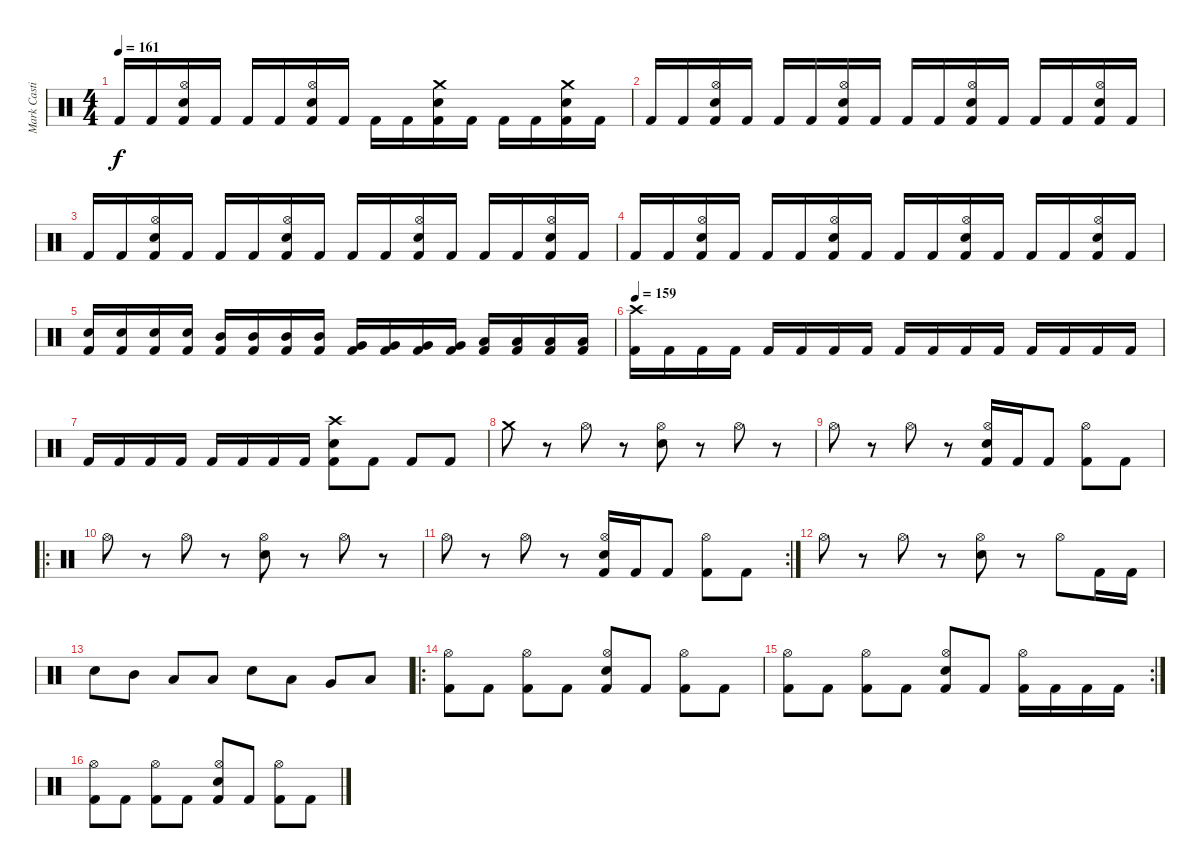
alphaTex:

\track ("Mark Castillo" "Mark Casti") {instrument percussion}
\staff {score}
\articulation defaults
\ts (4 4)
\tempo 161
\clef neutral
\ks c "Kick (hit) 2".16{dy f} "Kick (hit) 2".16
("Hi-Hat (open)" "Snare (hit) 2" "Kick (hit) 2").16 "Kick (hit) 2".16 "Kick (hit) 2".16 "Kick (hit) 2".16 ("Hi-Hat (open)" "Snare (hit) 2" "Kick (hit) 2").16 "Kick (hit) 2".16 "Kick (hit) 2".16 "Kick (hit) 2".16 ("Crash medium (hit)" "Snare (hit) 2" "Kick (hit) 2").16 "Kick (hit) 2".16 "Kick (hit) 2".16 "Kick (hit) 2".16 ("Crash medium (hit)" "Snare (hit) 2" "Kick (hit) 2").16 "Kick (hit) 2".16 |
"Kick (hit) 2".16 "Kick (hit) 2".16 ("Hi-Hat (open)" "Snare (hit) 2" "Kick (hit) 2").16 "Kick (hit) 2".16 "Kick (hit) 2".16 "Kick (hit) 2".16 ("Hi-Hat (open)" "Snare (hit) 2" "Kick (hit) 2").16 "Kick (hit) 2".16 "Kick (hit) 2".16 "Kick (hit) 2".16 ("Hi-Hat (open)" "Snare (hit) 2" "Kick (hit) 2").16 "Kick (hit) 2".16 "Kick (hit) 2".16 "Kick (hit) 2".16 ("Hi-Hat (open)" "Snare (hit) 2" "Kick (hit) 2").16 "Kick (hit) 2".16 |
"Kick (hit) 2".16 "Kick (hit) 2".16 ("Hi-Hat (open)" "Snare (hit) 2" "Kick (hit) 2").16 "Kick (hit) 2".16 "Kick (hit) 2".16 "Kick (hit) 2".16 ("Hi-Hat (open)" "Snare (hit) 2" "Kick (hit) 2").16 "Kick (hit) 2".16 "Kick (hit) 2".16 "Kick (hit) 2".16 ("Hi-Hat (open)" "Snare (hit) 2" "Kick (hit) 2").16 "Kick (hit) 2".16 "Kick (hit) 2".16 "Kick (hit) 2".16 ("Hi-Hat (open)" "Snare (hit) 2" "Kick (hit) 2").16 "Kick (hit) 2".16 |
"Kick (hit) 2".16 "Kick (hit) 2".16 ("Hi-Hat (open)" "Snare (hit) 2" "Kick (hit) 2").16 "Kick (hit) 2".16 "Kick (hit) 2".16 "Kick (hit) 2".16 ("Hi-Hat (open)" "Snare (hit) 2" "Kick (hit) 2").16 "Kick (hit) 2".16 "Kick (hit) 2".16 "Kick (hit) 2".16 ("Hi-Hat (open)" "Snare (hit) 2" "Kick (hit) 2").16 "Kick (hit) 2".16 "Kick (hit) 2".16 "Kick (hit) 2".16 ("Hi-Hat (open)" "Snare (hit) 2" "Kick (hit) 2").16 "Kick (hit) 2".16 |
("Snare (hit) 2" "Kick (hit) 2").16 ("Snare (hit) 2" "Kick (hit) 2").16 ("Snare (hit) 2" "Kick (hit) 2").16 ("Snare (hit) 2" "Kick (hit) 2").16 ("Mid Tom (hit)" "Kick (hit) 2").16 ("Mid Tom (hit)" "Kick (hit) 2").16 ("Mid Tom (hit)" "Kick (hit) 2").16 ("Mid Tom (hit)" "Kick (hit) 2").16 ("Very Low Tom (hit)" "Kick (hit) 2").16 ("Very Low Tom (hit)" "Kick (hit) 2").16 ("Very Low Tom (hit)" "Kick (hit) 2").16 ("Very Low Tom (hit)" "Kick (hit) 2").16 ("Low Floor Tom (hit)" "Kick (hit) 2").16 ("Low Floor Tom (hit)" "Kick (hit) 2").16 ("Low Floor Tom (hit)" "Kick (hit) 2").16 ("Low Floor Tom (hit)" "Kick (hit) 2").16 |
\tempo 159
("Crash high (hit)" "Kick (hit) 2").16 "Kick (hit) 2".16 "Kick (hit) 2".16 "Kick (hit) 2".16 "Kick (hit) 2".16 "Kick (hit) 2".16 "Kick (hit) 2".16 "Kick (hit) 2".16 "Kick (hit) 2".16 "Kick (hit) 2".16 "Kick (hit) 2".16 "Kick (hit) 2".16 "Kick (hit) 2".16 "Kick (hit) 2".16 "Kick (hit) 2".16 "Kick (hit) 2".16 |
"Kick (hit) 2".16 "Kick (hit) 2".16 "Kick (hit) 2".16 "Kick (hit) 2".16 "Kick (hit) 2".16 "Kick (hit) 2".16 "Kick (hit) 2".16 "Kick (hit) 2".16 ("Crash high (hit)" "Snare (hit) 2" "Kick (hit) 2").8 "Kick (hit) 2".8 "Kick (hit) 2".8 "Kick (hit) 2".8 |
"Crash medium (hit)".8 r.8 "Hi-Hat (open)".8 r.8 ("Hi-Hat (open)" "Snare (hit) 2").8 r.8 "Hi-Hat (open)".8 r.8 |
"Hi-Hat (open)".8 r.8 "Hi-Hat (open)".8 r.8 ("Hi-Hat (open)" "Snare (hit) 2" "Kick (hit) 2").16 "Kick (hit) 2".16 "Kick (hit) 2".8 ("Hi-Hat (open)" "Kick (hit) 2").8 "Kick (hit) 2".8 |
\ro "Hi-Hat (open)".8
r.8 "Hi-Hat (open)".8 r.8 ("Hi-Hat (open)" "Snare (hit) 2").8 r.8 "Hi-Hat (open)".8 r.8 |
\rc 2 "Hi-Hat (open)".8
r.8 "Hi-Hat (open)".8 r.8 ("Hi-Hat (open)" "Snare (hit) 2" "Kick (hit) 2").16 "Kick (hit) 2".16 "Kick (hit) 2".8 ("Hi-Hat (open)" "Kick (hit) 2").8 "Kick (hit) 2".8 |
"Hi-Hat (open)".8 r.8 "Hi-Hat (open)".8 r.8 ("Hi-Hat (open)" "Snare (hit) 2").8 r.8 "Hi-Hat (open)".8 "Kick (hit) 2".16 "Kick (hit) 2".16 |
"Snare (hit) 2".8 "Mid Tom (hit)".8 "Low Tom (hit)".8 "Low Floor Tom (hit)".8 "Snare (hit) 2".8 "Low Tom (hit)".8 "Very Low Tom (hit)".8 "Low Floor Tom (hit)".8 |
\ro
("Hi-Hat (open)" "Kick (hit) 2").8 "Kick (hit) 2".8 ("Hi-Hat (open)" "Kick (hit) 2").8 "Kick (hit) 2".8 ("Hi-Hat (open)" "Snare (hit) 2" "Kick (hit) 2").8 "Kick (hit) 2".8 ("Hi-Hat (open)" "Kick (hit) 2").8 "Kick (hit) 2".8 |
\rc 2
("Hi-Hat (open)" "Kick (hit) 2").8 "Kick (hit) 2".8 ("Hi-Hat (open)" "Kick (hit) 2").8 "Kick (hit) 2".8 ("Hi-Hat (open)" "Snare (hit) 2" "Kick (hit) 2").8 "Kick (hit) 2".8 ("Hi-Hat (open)" "Kick (hit) 2").16 "Kick (hit) 2".16 "Kick (hit) 2".16 "Kick (hit) 2".16 |
("Hi-Hat (open)" "Kick (hit) 2").8 "Kick (hit) 2".8 ("Hi-Hat (open)" "Kick (hit) 2").8 "Kick (hit) 2".8 ("Hi-Hat (open)" "Snare (hit) 2" "Kick (hit) 2").8 "Kick (hit) 2".8 ("Hi-Hat (open)" "Kick (hit) 2").8 "Kick (hit) 2".8
